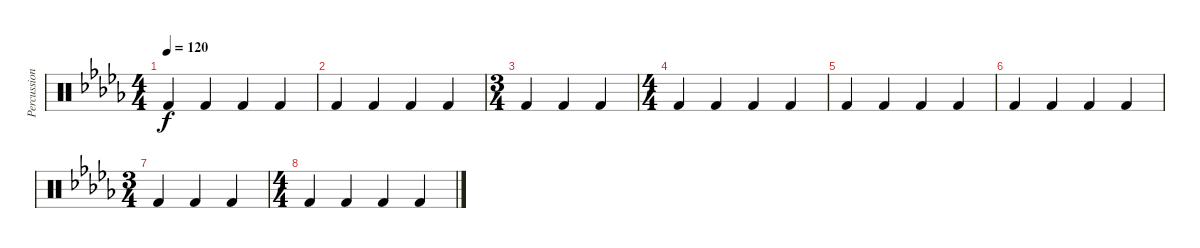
\track ("Percussions" "Percussion") {instrument percussion}
\staff {score}
\articulation defaults
\ts (4 4)
\tempo 120
\clef neutral
\ks db "Kick (hit) 2".4{dy f} "Kick (hit) 2".4 "Kick (hit) 2".4 "Kick (hit) 2".4
|
"Kick (hit) 2".4 "Kick (hit) 2".4 "Kick (hit) 2".4 "Kick (hit) 2".4 |
\ts (3 4)
"Kick (hit) 2".4 "Kick (hit) 2".4 "Kick (hit) 2".4 |
\ts (4 4)
"Kick (hit) 2".4 "Kick (hit) 2".4 "Kick (hit) 2".4 "Kick (hit) 2".4 |
"Kick (hit) 2".4 "Kick (hit) 2".4 "Kick (hit) 2".4 "Kick (hit) 2".4 |
"Kick (hit) 2".4 "Kick (hit) 2".4 "Kick (hit) 2".4 "Kick (hit) 2".4 |
\ts (3 4)
"Kick (hit) 2".4 "Kick (hit) 2".4 "Kick (hit) 2".4 |
\ts (4 4)
"Kick (hit) 2".4 "Kick (hit) 2".4 "Kick (hit) 2".4 "Kick (hit) 2".4
